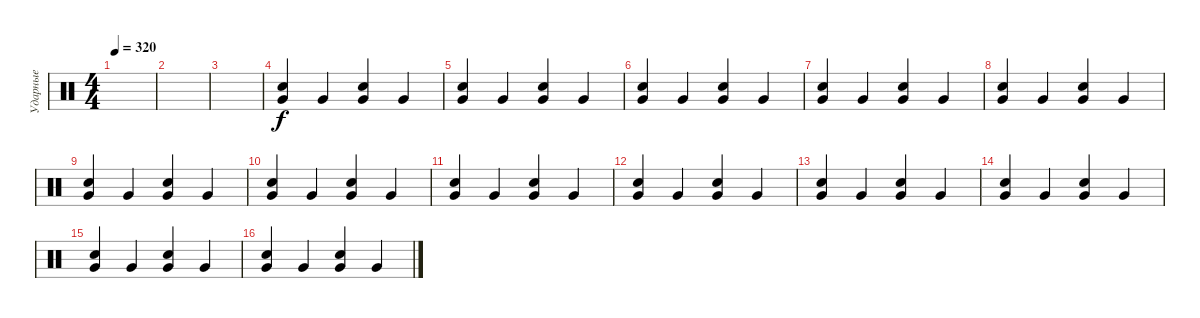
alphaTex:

\track ("Ударные" "Ударные") {instrument percussion}
\staff {score}
\articulation defaults
\ts (4 4)
\tempo 320
\clef neutral
\ks c
|
|
|
("Very Low Tom (hit)" "Electric Snare (hit)").4 "Very Low Tom (hit)".4 ("Very Low Tom (hit)" "Electric Snare (hit)").4 "Very Low Tom (hit)".4 |
("Very Low Tom (hit)" "Electric Snare (hit)").4 "Very Low Tom (hit)".4 ("Very Low Tom (hit)" "Electric Snare (hit)").4 "Very Low Tom (hit)".4 |
("Very Low Tom (hit)" "Electric Snare (hit)").4 "Very Low Tom (hit)".4 ("Very Low Tom (hit)" "Electric Snare (hit)").4 "Very Low Tom (hit)".4 |
("Very Low Tom (hit)" "Electric Snare (hit)").4 "Very Low Tom (hit)".4 ("Very Low Tom (hit)" "Electric Snare (hit)").4 "Very Low Tom (hit)".4 |
("Very Low Tom (hit)" "Electric Snare (hit)").4 "Very Low Tom (hit)".4 ("Very Low Tom (hit)" "Electric Snare (hit)").4 "Very Low Tom (hit)".4 |
("Very Low Tom (hit)" "Electric Snare (hit)").4 "Very Low Tom (hit)".4 ("Very Low Tom (hit)" "Electric Snare (hit)").4 "Very Low Tom (hit)".4 |
("Very Low Tom (hit)" "Electric Snare (hit)").4 "Very Low Tom (hit)".4 ("Very Low Tom (hit)" "Electric Snare (hit)").4 "Very Low Tom (hit)".4 |
("Very Low Tom (hit)" "Electric Snare (hit)").4 "Very Low Tom (hit)".4 ("Very Low Tom (hit)" "Electric Snare (hit)").4 "Very Low Tom (hit)".4 |
("Very Low Tom (hit)" "Electric Snare (hit)").4 "Very Low Tom (hit)".4 ("Very Low Tom (hit)" "Electric Snare (hit)").4 "Very Low Tom (hit)".4 |
("Very Low Tom (hit)" "Electric Snare (hit)").4 "Very Low Tom (hit)".4 ("Very Low Tom (hit)" "Electric Snare (hit)").4 "Very Low Tom (hit)".4 |
("Very Low Tom (hit)" "Electric Snare (hit)").4 "Very Low Tom (hit)".4 ("Very Low Tom (hit)" "Electric Snare (hit)").4 "Very Low Tom (hit)".4 |
("Very Low Tom (hit)" "Electric Snare (hit)").4 "Very Low Tom (hit)".4 ("Very Low Tom (hit)" "Electric Snare (hit)").4 "Very Low Tom (hit)".4 |
("Very Low Tom (hit)" "Electric Snare (hit)").4 "Very Low Tom (hit)".4 ("Very Low Tom (hit)" "Electric Snare (hit)").4 "Very Low Tom (hit)".4
